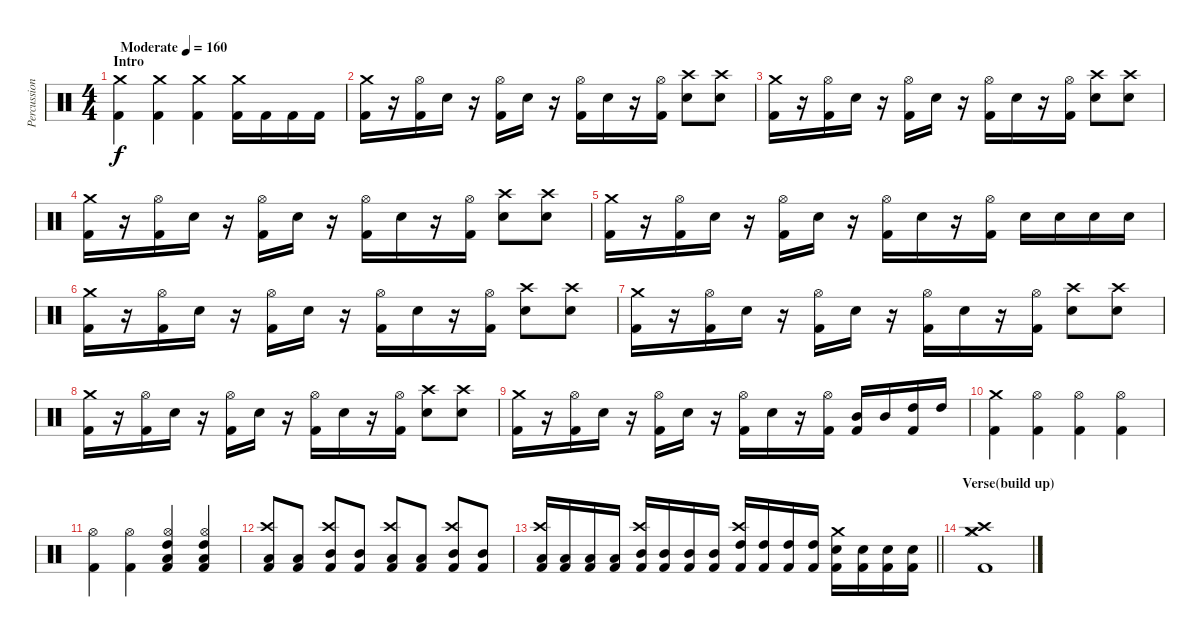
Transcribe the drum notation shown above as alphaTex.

\track ("Percussion" "Percussion") {instrument percussion}
\staff {score}
\articulation defaults
\ts (4 4)
\section ("" "Intro")
\tempo (160 "Moderate")
\clef neutral
\ks c
("Crash medium (hit)" "Kick (hit) 2").4{dy f} ("Crash medium (hit)" "Kick (hit) 2").4 ("Crash medium (hit)" "Kick (hit) 2").4 ("Crash medium (hit)" "Kick (hit) 2").16 "Kick (hit) 2".16 "Kick (hit) 2".16 "Kick (hit) 2".16 |
("Crash medium (hit)" "Kick (hit) 2").16 r.16 ("Hi-Hat (open)" "Kick (hit) 2").16 "Electric Snare (hit)".16 r.16 ("Hi-Hat (open)" "Kick (hit) 2").16 "Electric Snare (hit)".16 r.16 ("Hi-Hat (open)" "Kick (hit) 2").16 "Electric Snare (hit)".16 r.16 ("Hi-Hat (open)" "Kick (hit) 2").16 ("Crash high (hit)" "Electric Snare (hit)").8 ("Crash high (hit)" "Electric Snare (hit)").8 |
("Crash medium (hit)" "Kick (hit) 2").16 r.16 ("Hi-Hat (open)" "Kick (hit) 2").16 "Electric Snare (hit)".16 r.16 ("Hi-Hat (open)" "Kick (hit) 2").16 "Electric Snare (hit)".16 r.16 ("Hi-Hat (open)" "Kick (hit) 2").16 "Electric Snare (hit)".16 r.16 ("Hi-Hat (open)" "Kick (hit) 2").16 ("Crash high (hit)" "Electric Snare (hit)").8 ("Crash high (hit)" "Electric Snare (hit)").8 |
("Crash medium (hit)" "Kick (hit) 2").16 r.16 ("Hi-Hat (open)" "Kick (hit) 2").16 "Electric Snare (hit)".16 r.16 ("Hi-Hat (open)" "Kick (hit) 2").16 "Electric Snare (hit)".16 r.16 ("Hi-Hat (open)" "Kick (hit) 2").16 "Electric Snare (hit)".16 r.16 ("Hi-Hat (open)" "Kick (hit) 2").16 ("Crash high (hit)" "Electric Snare (hit)").8 ("Crash high (hit)" "Electric Snare (hit)").8 |
("Crash medium (hit)" "Kick (hit) 2").16 r.16 ("Hi-Hat (open)" "Kick (hit) 2").16 "Electric Snare (hit)".16 r.16 ("Hi-Hat (open)" "Kick (hit) 2").16 "Electric Snare (hit)".16 r.16 ("Hi-Hat (open)" "Kick (hit) 2").16 "Electric Snare (hit)".16 r.16 ("Hi-Hat (open)" "Kick (hit) 2").16 "Electric Snare (hit)".16 "Electric Snare (hit)".16 "Electric Snare (hit)".16 "Electric Snare (hit)".16 |
("Crash medium (hit)" "Kick (hit) 2").16 r.16 ("Hi-Hat (open)" "Kick (hit) 2").16 "Electric Snare (hit)".16 r.16 ("Hi-Hat (open)" "Kick (hit) 2").16 "Electric Snare (hit)".16 r.16 ("Hi-Hat (open)" "Kick (hit) 2").16 "Electric Snare (hit)".16 r.16 ("Hi-Hat (open)" "Kick (hit) 2").16 ("Crash high (hit)" "Electric Snare (hit)").8 ("Crash high (hit)" "Electric Snare (hit)").8 |
("Crash medium (hit)" "Kick (hit) 2").16 r.16 ("Hi-Hat (open)" "Kick (hit) 2").16 "Electric Snare (hit)".16 r.16 ("Hi-Hat (open)" "Kick (hit) 2").16 "Electric Snare (hit)".16 r.16 ("Hi-Hat (open)" "Kick (hit) 2").16 "Electric Snare (hit)".16 r.16 ("Hi-Hat (open)" "Kick (hit) 2").16 ("Crash high (hit)" "Electric Snare (hit)").8 ("Crash high (hit)" "Electric Snare (hit)").8 |
("Crash medium (hit)" "Kick (hit) 2").16 r.16 ("Hi-Hat (open)" "Kick (hit) 2").16 "Electric Snare (hit)".16 r.16 ("Hi-Hat (open)" "Kick (hit) 2").16 "Electric Snare (hit)".16 r.16 ("Hi-Hat (open)" "Kick (hit) 2").16 "Electric Snare (hit)".16 r.16 ("Hi-Hat (open)" "Kick (hit) 2").16 ("Crash high (hit)" "Electric Snare (hit)").8 ("Crash high (hit)" "Electric Snare (hit)").8 |
("Crash medium (hit)" "Kick (hit) 2").16 r.16 ("Hi-Hat (open)" "Kick (hit) 2").16 "Electric Snare (hit)".16 r.16 ("Hi-Hat (open)" "Kick (hit) 2").16 "Electric Snare (hit)".16 r.16 ("Hi-Hat (open)" "Kick (hit) 2").16 "Electric Snare (hit)".16 r.16 ("Hi-Hat (open)" "Kick (hit) 2").16 ("Mid Tom (hit)" "Kick (hit) 2").16 "Mid Tom (hit)".16 ("High Tom (hit)" "Kick (hit) 2").16 "High Tom (hit)".16 |
("Crash medium (hit)" "Kick (hit) 2").4 ("Hi-Hat (open)" "Kick (hit) 2").4 ("Hi-Hat (open)" "Kick (hit) 2").4 ("Hi-Hat (open)" "Kick (hit) 2").4 |
("Hi-Hat (open)" "Kick (hit) 2").4 ("Hi-Hat (open)" "Kick (hit) 2").4 ("Hi-Hat (open)" "Low Tom (hit)" "High Tom (hit)" "Kick (hit) 2").4 ("Hi-Hat (open)" "Low Tom (hit)" "High Tom (hit)" "Kick (hit) 2").4 |
("Crash high (hit)" "Low Tom (hit)" "Kick (hit) 2").8 ("Low Tom (hit)" "Kick (hit) 2").8 ("Crash high (hit)" "Mid Tom (hit)" "Kick (hit) 2").8 ("Mid Tom (hit)" "Kick (hit) 2").8 ("Crash high (hit)" "Low Tom (hit)" "Kick (hit) 2").8 ("Low Tom (hit)" "Kick (hit) 2").8 ("Crash high (hit)" "Mid Tom (hit)" "Kick (hit) 2").8 ("Mid Tom (hit)" "Kick (hit) 2").8 |
\barLineRight lightlight
("Crash high (hit)" "Low Tom (hit)" "Kick (hit) 2").16 ("Low Tom (hit)" "Kick (hit) 2").16 ("Low Tom (hit)" "Kick (hit) 2").16 ("Low Tom (hit)" "Kick (hit) 2").16 ("Crash high (hit)" "Mid Tom (hit)" "Kick (hit) 2").16 ("Mid Tom (hit)" "Kick (hit) 2").16 ("Mid Tom (hit)" "Kick (hit) 2").16 ("Mid Tom (hit)" "Kick (hit) 2").16 ("Crash high (hit)" "High Tom (hit)" "Kick (hit) 2").16 ("High Tom (hit)" "Kick (hit) 2").16 ("High Tom (hit)" "Kick (hit) 2").16 ("High Tom (hit)" "Kick (hit) 2").16 ("Crash medium (hit)" "Electric Snare (hit)" "Kick (hit) 2").16 ("Electric Snare (hit)" "Kick (hit) 2").16 ("Electric Snare (hit)" "Kick (hit) 2").16 ("Electric Snare (hit)" "Kick (hit) 2").16 |
\section ("" "Verse(build up)")
("Crash medium (hit)" "Crash high (hit)" "Hi-Hat (closed)" "Kick (hit) 2").1
